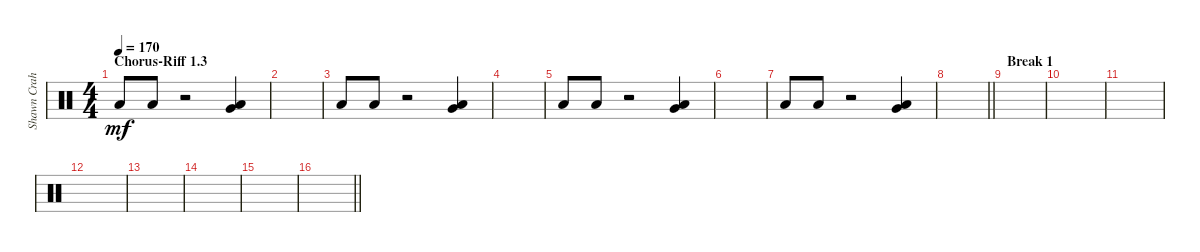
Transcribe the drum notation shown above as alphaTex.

\track ("Shawn Crahan" "Shawn Crah") {instrument percussion}
\staff {score}
\articulation defaults
\ts (4 4)
\section ("" "Chorus-Riff 1.3")
\tempo 170
\clef neutral
\ks c "Low Floor Tom (hit)".8{dy mf} "Low Floor Tom (hit)".8
r.2 ("Very Low Tom (hit)" "Low Floor Tom (hit)").4 |
|
"Low Floor Tom (hit)".8 "Low Floor Tom (hit)".8 r.2 ("Very Low Tom (hit)" "Low Floor Tom (hit)").4 |
|
"Low Floor Tom (hit)".8 "Low Floor Tom (hit)".8 r.2 ("Very Low Tom (hit)" "Low Floor Tom (hit)").4 |
|
"Low Floor Tom (hit)".8 "Low Floor Tom (hit)".8 r.2 ("Very Low Tom (hit)" "Low Floor Tom (hit)").4 |
\barLineRight lightlight
|
\section ("" "Break 1")
|
|
|
|
|
|
|
\barLineRight lightlight
